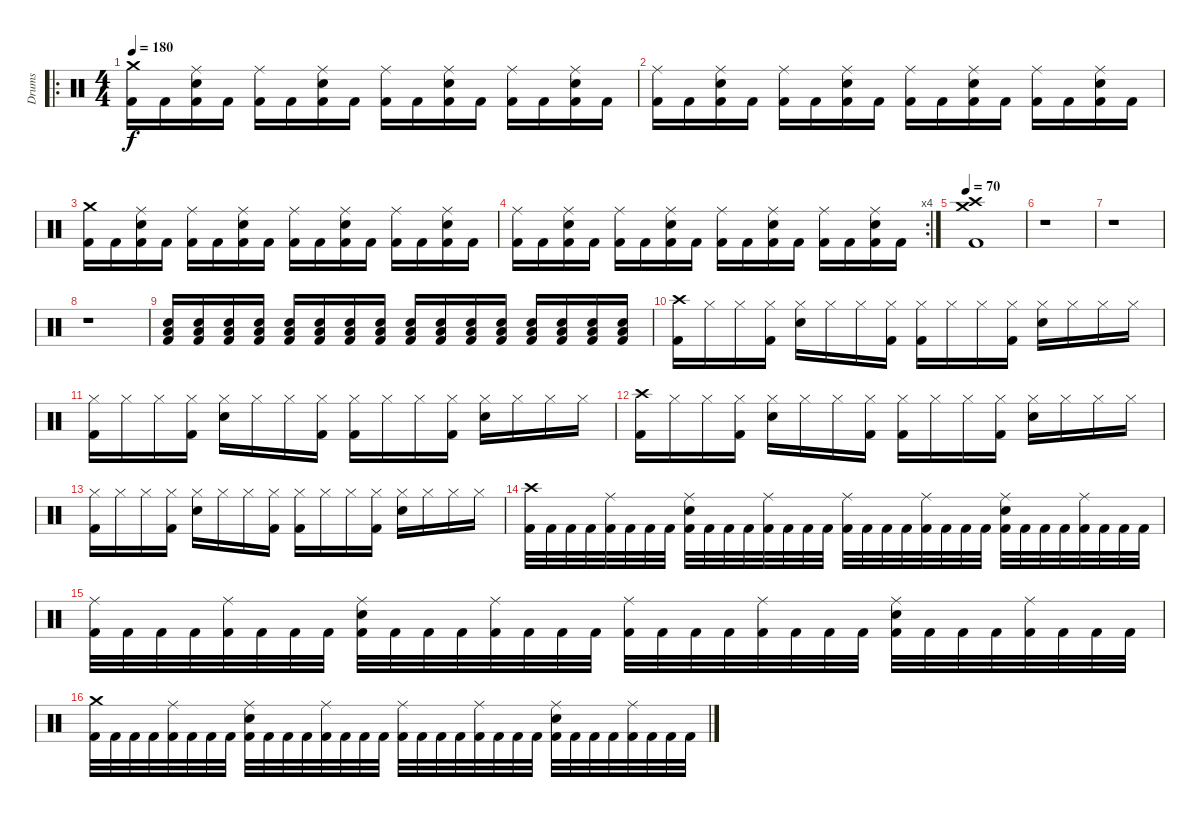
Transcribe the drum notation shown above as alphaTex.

\track ("Drums" "Drums") {instrument percussion}
\staff {score}
\articulation defaults
\ro
\ts (4 4)
\tempo 180
\clef neutral
\ks c
("Kick (hit) 2" "Crash medium (hit)").16{dy f} "Kick (hit) 2".16 ("Kick (hit) 2" "Ride (middle)" "Snare (hit) 2").16 "Kick (hit) 2".16 ("Kick (hit) 2" "Ride (middle)").16 "Kick (hit) 2".16 ("Kick (hit) 2" "Ride (middle)" "Snare (hit) 2").16 "Kick (hit) 2".16 ("Kick (hit) 2" "Ride (middle)").16 "Kick (hit) 2".16 ("Kick (hit) 2" "Ride (middle)" "Snare (hit) 2").16 "Kick (hit) 2".16 ("Kick (hit) 2" "Ride (middle)").16 "Kick (hit) 2".16 ("Kick (hit) 2" "Ride (middle)" "Snare (hit) 2").16 "Kick (hit) 2".16 |
("Kick (hit) 2" "Ride (middle)").16 "Kick (hit) 2".16 ("Kick (hit) 2" "Ride (middle)" "Snare (hit) 2").16 "Kick (hit) 2".16 ("Kick (hit) 2" "Ride (middle)").16 "Kick (hit) 2".16 ("Kick (hit) 2" "Ride (middle)" "Snare (hit) 2").16 "Kick (hit) 2".16 ("Kick (hit) 2" "Ride (middle)").16 "Kick (hit) 2".16 ("Kick (hit) 2" "Ride (middle)" "Snare (hit) 2").16 "Kick (hit) 2".16 ("Kick (hit) 2" "Ride (middle)").16 "Kick (hit) 2".16 ("Kick (hit) 2" "Ride (middle)" "Snare (hit) 2").16 "Kick (hit) 2".16 |
("Kick (hit) 2" "Crash medium (hit)").16 "Kick (hit) 2".16 ("Kick (hit) 2" "Ride (middle)" "Snare (hit) 2").16 "Kick (hit) 2".16 ("Kick (hit) 2" "Ride (middle)").16 "Kick (hit) 2".16 ("Kick (hit) 2" "Ride (middle)" "Snare (hit) 2").16 "Kick (hit) 2".16 ("Kick (hit) 2" "Ride (middle)").16 "Kick (hit) 2".16 ("Kick (hit) 2" "Ride (middle)" "Snare (hit) 2").16 "Kick (hit) 2".16 ("Kick (hit) 2" "Ride (middle)").16 "Kick (hit) 2".16 ("Kick (hit) 2" "Ride (middle)" "Snare (hit) 2").16 "Kick (hit) 2".16 |
\rc 4
("Kick (hit) 2" "Ride (middle)").16 "Kick (hit) 2".16 ("Kick (hit) 2" "Ride (middle)" "Snare (hit) 2").16 "Kick (hit) 2".16 ("Kick (hit) 2" "Ride (middle)").16 "Kick (hit) 2".16 ("Kick (hit) 2" "Ride (middle)" "Snare (hit) 2").16 "Kick (hit) 2".16 ("Kick (hit) 2" "Ride (middle)").16 "Kick (hit) 2".16 ("Kick (hit) 2" "Ride (middle)" "Snare (hit) 2").16 "Kick (hit) 2".16 ("Kick (hit) 2" "Ride (middle)").16 "Kick (hit) 2".16 ("Kick (hit) 2" "Ride (middle)" "Snare (hit) 2").16 "Kick (hit) 2".16 |
\tempo 70
("Kick (hit) 2" "Crash high (hit)" "Crash medium (hit)").1 |
r.1 |
r.1 |
r.1 |
("Kick (hit) 2" "Low Tom (hit)" "Snare (hit) 2").16{volume 4} ("Kick (hit) 2" "Low Tom (hit)" "Snare (hit) 2").16{volume 13} ("Kick (hit) 2" "Low Tom (hit)" "Snare (hit) 2").16 ("Kick (hit) 2" "Low Tom (hit)" "Snare (hit) 2").16 ("Kick (hit) 2" "Low Tom (hit)" "Snare (hit) 2").16 ("Kick (hit) 2" "Low Tom (hit)" "Snare (hit) 2").16 ("Kick (hit) 2" "Low Tom (hit)" "Snare (hit) 2").16 ("Kick (hit) 2" "Low Tom (hit)" "Snare (hit) 2").16 ("Kick (hit) 2" "Low Tom (hit)" "Snare (hit) 2").16 ("Kick (hit) 2" "Low Tom (hit)" "Snare (hit) 2").16 ("Kick (hit) 2" "Low Tom (hit)" "Snare (hit) 2").16 ("Kick (hit) 2" "Low Tom (hit)" "Snare (hit) 2").16 ("Kick (hit) 2" "Low Tom (hit)" "Snare (hit) 2").16 ("Kick (hit) 2" "Low Tom (hit)" "Snare (hit) 2").16 ("Kick (hit) 2" "Low Tom (hit)" "Snare (hit) 2").16 ("Kick (hit) 2" "Low Tom (hit)" "Snare (hit) 2").16 |
("Kick (hit) 2" "Crash high (hit)").16 "Hi-Hat (closed)".16 "Hi-Hat (closed)".16 ("Kick (hit) 2" "Hi-Hat (closed)").16 ("Hi-Hat (closed)" "Snare (hit) 2").16 "Hi-Hat (closed)".16 "Hi-Hat (closed)".16 ("Kick (hit) 2" "Hi-Hat (closed)").16 ("Kick (hit) 2" "Hi-Hat (closed)").16 "Hi-Hat (closed)".16 "Hi-Hat (closed)".16 ("Kick (hit) 2" "Hi-Hat (closed)").16 ("Hi-Hat (closed)" "Snare (hit) 2").16 "Hi-Hat (closed)".16 "Hi-Hat (closed)".16 "Hi-Hat (closed)".16 |
("Kick (hit) 2" "Hi-Hat (closed)").16 "Hi-Hat (closed)".16 "Hi-Hat (closed)".16 ("Kick (hit) 2" "Hi-Hat (closed)").16 ("Hi-Hat (closed)" "Snare (hit) 2").16 "Hi-Hat (closed)".16 "Hi-Hat (closed)".16 ("Kick (hit) 2" "Hi-Hat (closed)").16 ("Kick (hit) 2" "Hi-Hat (closed)").16 "Hi-Hat (closed)".16 "Hi-Hat (closed)".16 ("Kick (hit) 2" "Hi-Hat (closed)").16 ("Hi-Hat (closed)" "Snare (hit) 2").16 "Hi-Hat (closed)".16 "Hi-Hat (closed)".16 "Hi-Hat (closed)".16 |
("Kick (hit) 2" "Crash high (hit)").16 "Hi-Hat (closed)".16 "Hi-Hat (closed)".16 ("Kick (hit) 2" "Hi-Hat (closed)").16 ("Hi-Hat (closed)" "Snare (hit) 2").16 "Hi-Hat (closed)".16 "Hi-Hat (closed)".16 ("Kick (hit) 2" "Hi-Hat (closed)").16 ("Kick (hit) 2" "Hi-Hat (closed)").16 "Hi-Hat (closed)".16 "Hi-Hat (closed)".16 ("Kick (hit) 2" "Hi-Hat (closed)").16 ("Hi-Hat (closed)" "Snare (hit) 2").16 "Hi-Hat (closed)".16 "Hi-Hat (closed)".16 "Hi-Hat (closed)".16 |
("Kick (hit) 2" "Hi-Hat (closed)").16 "Hi-Hat (closed)".16 "Hi-Hat (closed)".16 ("Kick (hit) 2" "Hi-Hat (closed)").16 ("Hi-Hat (closed)" "Snare (hit) 2").16 "Hi-Hat (closed)".16 "Hi-Hat (closed)".16 ("Kick (hit) 2" "Hi-Hat (closed)").16 ("Kick (hit) 2" "Hi-Hat (closed)").16 "Hi-Hat (closed)".16 "Hi-Hat (closed)".16 ("Kick (hit) 2" "Hi-Hat (closed)").16 ("Hi-Hat (closed)" "Snare (hit) 2").16 "Hi-Hat (closed)".16 "Hi-Hat (closed)".16 "Hi-Hat (closed)".16 |
("Kick (hit) 2" "Crash high (hit)").32 "Kick (hit) 2".32 "Kick (hit) 2".32 "Kick (hit) 2".32 ("Kick (hit) 2" "Ride (middle)").32 "Kick (hit) 2".32 "Kick (hit) 2".32 "Kick (hit) 2".32 ("Kick (hit) 2" "Ride (middle)" "Snare (hit) 2").32 "Kick (hit) 2".32 "Kick (hit) 2".32 "Kick (hit) 2".32 ("Kick (hit) 2" "Ride (middle)").32 "Kick (hit) 2".32 "Kick (hit) 2".32 "Kick (hit) 2".32 ("Kick (hit) 2" "Ride (middle)").32 "Kick (hit) 2".32 "Kick (hit) 2".32 "Kick (hit) 2".32 ("Kick (hit) 2" "Ride (middle)").32 "Kick (hit) 2".32 "Kick (hit) 2".32 "Kick (hit) 2".32 ("Kick (hit) 2" "Ride (middle)" "Snare (hit) 2").32 "Kick (hit) 2".32 "Kick (hit) 2".32 "Kick (hit) 2".32 ("Kick (hit) 2" "Ride (middle)").32 "Kick (hit) 2".32 "Kick (hit) 2".32 "Kick (hit) 2".32 |
("Kick (hit) 2" "Ride (middle)").32 "Kick (hit) 2".32 "Kick (hit) 2".32 "Kick (hit) 2".32 ("Kick (hit) 2" "Ride (middle)").32 "Kick (hit) 2".32 "Kick (hit) 2".32 "Kick (hit) 2".32 ("Kick (hit) 2" "Ride (middle)" "Snare (hit) 2").32 "Kick (hit) 2".32 "Kick (hit) 2".32 "Kick (hit) 2".32 ("Kick (hit) 2" "Ride (middle)").32 "Kick (hit) 2".32 "Kick (hit) 2".32 "Kick (hit) 2".32 ("Kick (hit) 2" "Ride (middle)").32 "Kick (hit) 2".32 "Kick (hit) 2".32 "Kick (hit) 2".32 ("Kick (hit) 2" "Ride (middle)").32 "Kick (hit) 2".32 "Kick (hit) 2".32 "Kick (hit) 2".32 ("Kick (hit) 2" "Ride (middle)" "Snare (hit) 2").32 "Kick (hit) 2".32 "Kick (hit) 2".32 "Kick (hit) 2".32 ("Kick (hit) 2" "Ride (middle)").32 "Kick (hit) 2".32 "Kick (hit) 2".32 "Kick (hit) 2".32 |
("Kick (hit) 2" "Crash medium (hit)").32 "Kick (hit) 2".32 "Kick (hit) 2".32 "Kick (hit) 2".32 ("Kick (hit) 2" "Ride (middle)").32 "Kick (hit) 2".32 "Kick (hit) 2".32 "Kick (hit) 2".32 ("Kick (hit) 2" "Ride (middle)" "Snare (hit) 2").32 "Kick (hit) 2".32 "Kick (hit) 2".32 "Kick (hit) 2".32 ("Kick (hit) 2" "Ride (middle)").32 "Kick (hit) 2".32 "Kick (hit) 2".32 "Kick (hit) 2".32 ("Kick (hit) 2" "Ride (middle)").32 "Kick (hit) 2".32 "Kick (hit) 2".32 "Kick (hit) 2".32 ("Kick (hit) 2" "Ride (middle)").32 "Kick (hit) 2".32 "Kick (hit) 2".32 "Kick (hit) 2".32 ("Kick (hit) 2" "Ride (middle)" "Snare (hit) 2").32 "Kick (hit) 2".32 "Kick (hit) 2".32 "Kick (hit) 2".32 ("Kick (hit) 2" "Ride (middle)").32 "Kick (hit) 2".32 "Kick (hit) 2".32 "Kick (hit) 2".32
